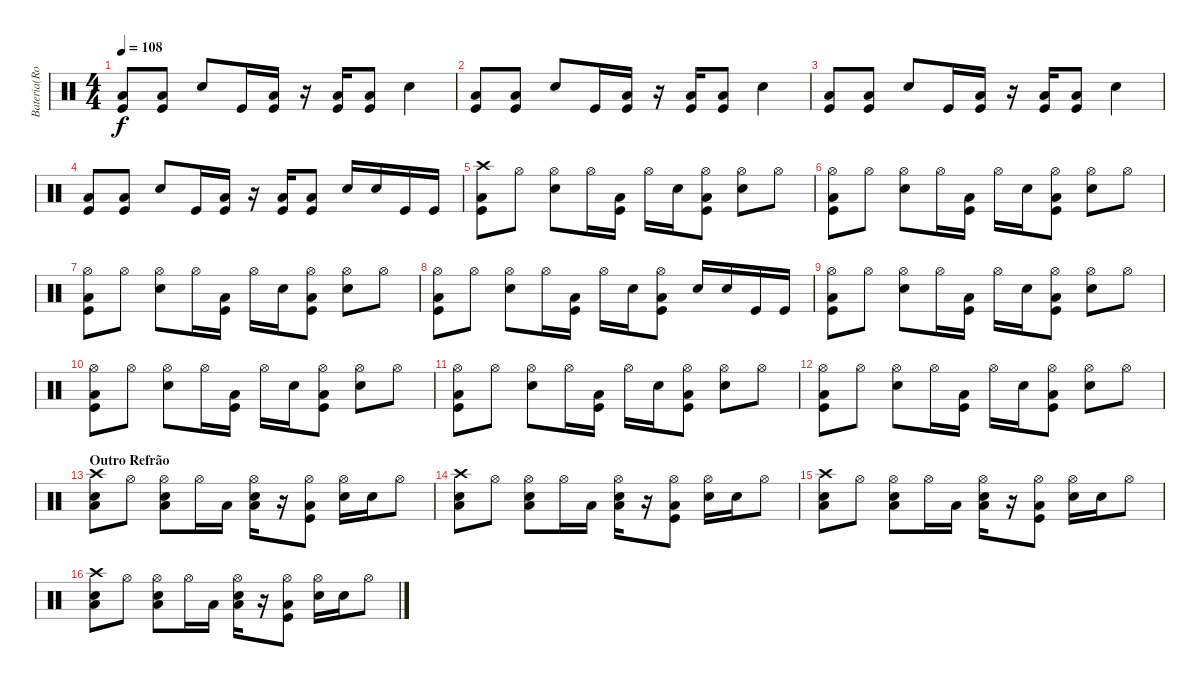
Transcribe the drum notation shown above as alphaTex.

\track ("Bateria(Rob)" "Bateria(Ro") {instrument percussion}
\staff {score}
\articulation defaults
\ts (4 4)
\tempo 108
\clef neutral
\ks c
("Kick (hit)" "Low Tom (hit)").8{dy f} ("Kick (hit)" "Low Tom (hit)").8 "Snare (hit) 2".8 "Kick (hit)".16 ("Kick (hit)" "Low Tom (hit)").16 r.16 ("Kick (hit)" "Low Tom (hit)").16 ("Kick (hit)" "Low Tom (hit)").8 "Snare (hit) 2".4 |
("Kick (hit)" "Low Tom (hit)").8 ("Kick (hit)" "Low Tom (hit)").8 "Snare (hit) 2".8 "Kick (hit)".16 ("Kick (hit)" "Low Tom (hit)").16 r.16 ("Kick (hit)" "Low Tom (hit)").16 ("Kick (hit)" "Low Tom (hit)").8 "Snare (hit) 2".4 |
("Kick (hit)" "Low Tom (hit)").8 ("Kick (hit)" "Low Tom (hit)").8 "Snare (hit) 2".8 "Kick (hit)".16 ("Kick (hit)" "Low Tom (hit)").16 r.16 ("Kick (hit)" "Low Tom (hit)").16 ("Kick (hit)" "Low Tom (hit)").8 "Snare (hit) 2".4 |
("Kick (hit)" "Low Tom (hit)").8 ("Kick (hit)" "Low Tom (hit)").8 "Snare (hit) 2".8 "Kick (hit)".16 ("Kick (hit)" "Low Tom (hit)").16 r.16 ("Kick (hit)" "Low Tom (hit)").16 ("Kick (hit)" "Low Tom (hit)").8 "Snare (hit) 2".16 "Snare (hit) 2".16 "Kick (hit)".16 "Kick (hit)".16 |
("Crash high (hit)" "Kick (hit)" "Low Tom (hit)").8 "Hi-Hat (open)".8 ("Hi-Hat (open)" "Snare (hit) 2").8 "Hi-Hat (open)".16 ("Kick (hit)" "Low Tom (hit)").16 "Hi-Hat (open)".16 "Snare (hit) 2".16 ("Hi-Hat (open)" "Kick (hit)" "Low Tom (hit)").8 ("Hi-Hat (open)" "Snare (hit) 2").8 "Hi-Hat (open)".8 |
("Hi-Hat (open)" "Kick (hit)" "Low Tom (hit)").8 "Hi-Hat (open)".8 ("Hi-Hat (open)" "Snare (hit) 2").8 "Hi-Hat (open)".16 ("Kick (hit)" "Low Tom (hit)").16 "Hi-Hat (open)".16 "Snare (hit) 2".16 ("Hi-Hat (open)" "Kick (hit)" "Low Tom (hit)").8 ("Hi-Hat (open)" "Snare (hit) 2").8 "Hi-Hat (open)".8 |
("Hi-Hat (open)" "Kick (hit)" "Low Tom (hit)").8 "Hi-Hat (open)".8 ("Hi-Hat (open)" "Snare (hit) 2").8 "Hi-Hat (open)".16 ("Kick (hit)" "Low Tom (hit)").16 "Hi-Hat (open)".16 "Snare (hit) 2".16 ("Hi-Hat (open)" "Kick (hit)" "Low Tom (hit)").8 ("Hi-Hat (open)" "Snare (hit) 2").8 "Hi-Hat (open)".8 |
("Hi-Hat (open)" "Kick (hit)" "Low Tom (hit)").8 "Hi-Hat (open)".8 ("Hi-Hat (open)" "Snare (hit) 2").8 "Hi-Hat (open)".16 ("Kick (hit)" "Low Tom (hit)").16 "Hi-Hat (open)".16 "Snare (hit) 2".16 ("Hi-Hat (open)" "Kick (hit)" "Low Tom (hit)").8 "Snare (hit) 2".16 "Snare (hit) 2".16 "Kick (hit)".16 "Kick (hit)".16 |
("Hi-Hat (open)" "Kick (hit)" "Low Tom (hit)").8 "Hi-Hat (open)".8 ("Hi-Hat (open)" "Snare (hit) 2").8 "Hi-Hat (open)".16 ("Kick (hit)" "Low Tom (hit)").16 "Hi-Hat (open)".16 "Snare (hit) 2".16 ("Hi-Hat (open)" "Kick (hit)" "Low Tom (hit)").8 ("Hi-Hat (open)" "Snare (hit) 2").8 "Hi-Hat (open)".8 |
("Hi-Hat (open)" "Kick (hit)" "Low Tom (hit)").8 "Hi-Hat (open)".8 ("Hi-Hat (open)" "Snare (hit) 2").8 "Hi-Hat (open)".16 ("Kick (hit)" "Low Tom (hit)").16 "Hi-Hat (open)".16 "Snare (hit) 2".16 ("Hi-Hat (open)" "Kick (hit)" "Low Tom (hit)").8 ("Hi-Hat (open)" "Snare (hit) 2").8 "Hi-Hat (open)".8 |
("Hi-Hat (open)" "Kick (hit)" "Low Tom (hit)").8 "Hi-Hat (open)".8 ("Hi-Hat (open)" "Snare (hit) 2").8 "Hi-Hat (open)".16 ("Kick (hit)" "Low Tom (hit)").16 "Hi-Hat (open)".16 "Snare (hit) 2".16 ("Hi-Hat (open)" "Kick (hit)" "Low Tom (hit)").8 ("Hi-Hat (open)" "Snare (hit) 2").8 "Hi-Hat (open)".8 |
("Hi-Hat (open)" "Kick (hit)" "Low Tom (hit)").8 "Hi-Hat (open)".8 ("Hi-Hat (open)" "Snare (hit) 2").8 "Hi-Hat (open)".16 ("Kick (hit)" "Low Tom (hit)").16 "Hi-Hat (open)".16 "Snare (hit) 2".16 ("Hi-Hat (open)" "Kick (hit)" "Low Tom (hit)").8 ("Hi-Hat (open)" "Snare (hit) 2").8 "Hi-Hat (open)".8 |
\section ("" "Outro Refrão")
("Crash high (hit)" "Snare (hit) 2" "Low Tom (hit)").8 "Hi-Hat (open)".8 ("Hi-Hat (open)" "Snare (hit) 2" "Low Tom (hit)").8 "Hi-Hat (open)".16 "Low Tom (hit)".16 ("Hi-Hat (open)" "Snare (hit) 2" "Low Tom (hit)").16 r.16 ("Hi-Hat (open)" "Kick (hit)" "Low Tom (hit)").8 ("Hi-Hat (open)" "Snare (hit) 2").16 "Snare (hit) 2".16 "Hi-Hat (open)".8 |
("Crash high (hit)" "Snare (hit) 2" "Low Tom (hit)").8 "Hi-Hat (open)".8 ("Hi-Hat (open)" "Snare (hit) 2" "Low Tom (hit)").8 "Hi-Hat (open)".16 "Low Tom (hit)".16 ("Hi-Hat (open)" "Snare (hit) 2" "Low Tom (hit)").16 r.16 ("Hi-Hat (open)" "Kick (hit)" "Low Tom (hit)").8 ("Hi-Hat (open)" "Snare (hit) 2").16 "Snare (hit) 2".16 "Hi-Hat (open)".8 |
("Crash high (hit)" "Snare (hit) 2" "Low Tom (hit)").8 "Hi-Hat (open)".8 ("Hi-Hat (open)" "Snare (hit) 2" "Low Tom (hit)").8 "Hi-Hat (open)".16 "Low Tom (hit)".16 ("Hi-Hat (open)" "Snare (hit) 2" "Low Tom (hit)").16 r.16 ("Hi-Hat (open)" "Kick (hit)" "Low Tom (hit)").8 ("Hi-Hat (open)" "Snare (hit) 2").16 "Snare (hit) 2".16 "Hi-Hat (open)".8 |
("Crash high (hit)" "Snare (hit) 2" "Low Tom (hit)").8 "Hi-Hat (open)".8 ("Hi-Hat (open)" "Snare (hit) 2" "Low Tom (hit)").8 "Hi-Hat (open)".16 "Low Tom (hit)".16 ("Hi-Hat (open)" "Snare (hit) 2" "Low Tom (hit)").16 r.16 ("Hi-Hat (open)" "Kick (hit)" "Low Tom (hit)").8 ("Hi-Hat (open)" "Snare (hit) 2").16 "Snare (hit) 2".16 "Hi-Hat (open)".8
